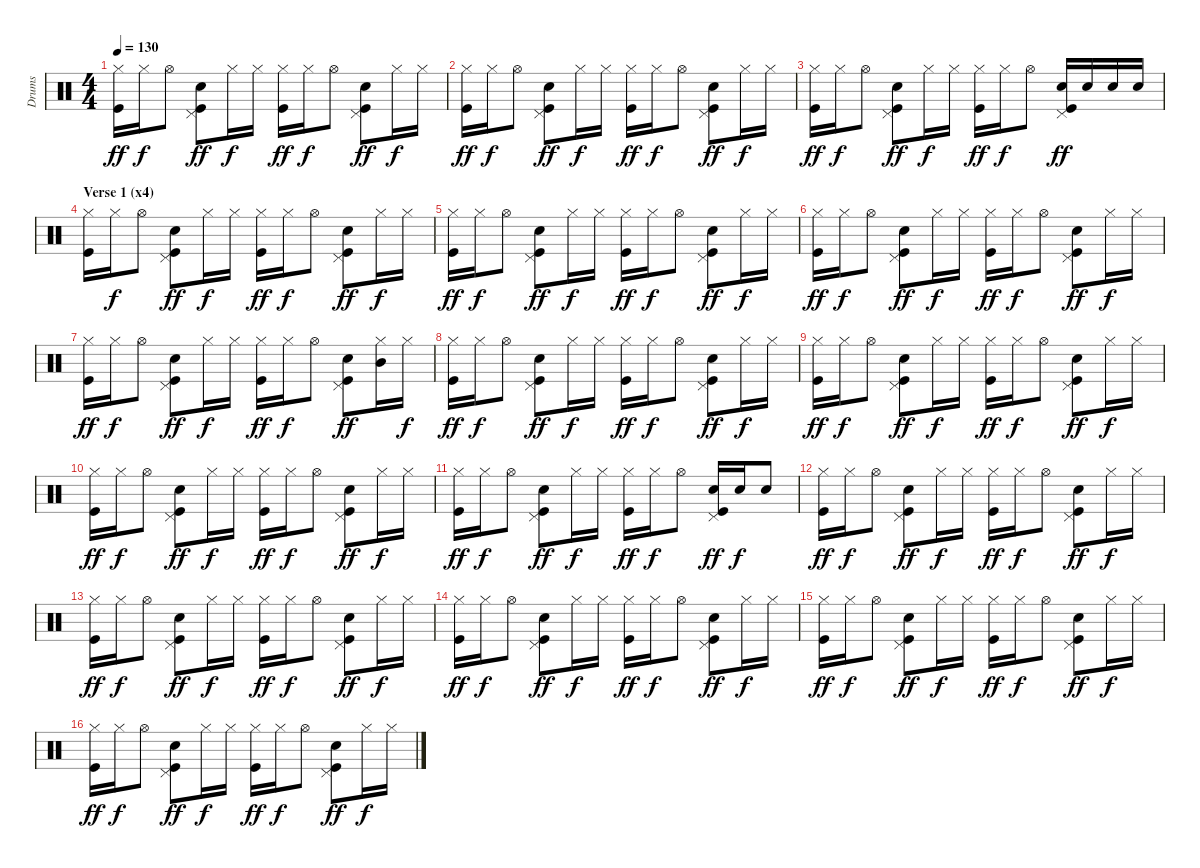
\track ("Drums" "Drums") {instrument percussion}
\staff {score}
\articulation defaults
\ts (4 4)
\tempo 130
\clef neutral
\ks c
("Hi-Hat (closed)" "Kick (hit)").16{dy ff} "Hi-Hat (closed)".16{dy f} "Hi-Hat (open)".8 ("Pedal Hi-Hat (hit)" "Electric Snare (hit)" "Kick (hit)").8{dy ff} "Hi-Hat (closed)".16{dy f} "Hi-Hat (closed)".16 ("Hi-Hat (closed)" "Kick (hit)").16{dy ff} "Hi-Hat (closed)".16{dy f} "Hi-Hat (open)".8 ("Pedal Hi-Hat (hit)" "Electric Snare (hit)" "Kick (hit)").8{dy ff} "Hi-Hat (closed)".16{dy f} "Hi-Hat (closed)".16 |
("Hi-Hat (closed)" "Kick (hit)").16{dy ff} "Hi-Hat (closed)".16{dy f} "Hi-Hat (open)".8 ("Pedal Hi-Hat (hit)" "Electric Snare (hit)" "Kick (hit)").8{dy ff} "Hi-Hat (closed)".16{dy f} "Hi-Hat (closed)".16 ("Hi-Hat (closed)" "Kick (hit)").16{dy ff} "Hi-Hat (closed)".16{dy f} "Hi-Hat (open)".8 ("Pedal Hi-Hat (hit)" "Electric Snare (hit)" "Kick (hit)").8{dy ff} "Hi-Hat (closed)".16{dy f} "Hi-Hat (closed)".16 |
("Hi-Hat (closed)" "Kick (hit)").16{dy ff} "Hi-Hat (closed)".16{dy f} "Hi-Hat (open)".8 ("Pedal Hi-Hat (hit)" "Electric Snare (hit)" "Kick (hit)").8{dy ff} "Hi-Hat (closed)".16{dy f} "Hi-Hat (closed)".16 ("Hi-Hat (closed)" "Kick (hit)").16{dy ff} "Hi-Hat (closed)".16{dy f} "Hi-Hat (open)".8 ("Pedal Hi-Hat (hit)" "Electric Snare (hit)" "Kick (hit)").16{dy ff} "Electric Snare (hit)".16 "Electric Snare (hit)".16 "Electric Snare (hit)".16 |
\section ("" "Verse 1 (x4)")
("Hi-Hat (closed)" "Kick (hit)").16 "Hi-Hat (closed)".16{dy f} "Hi-Hat (open)".8 ("Pedal Hi-Hat (hit)" "Electric Snare (hit)" "Kick (hit)").8{dy ff} "Hi-Hat (closed)".16{dy f} "Hi-Hat (closed)".16 ("Hi-Hat (closed)" "Kick (hit)").16{dy ff} "Hi-Hat (closed)".16{dy f} "Hi-Hat (open)".8 ("Pedal Hi-Hat (hit)" "Electric Snare (hit)" "Kick (hit)").8{dy ff} "Hi-Hat (closed)".16{dy f} "Hi-Hat (closed)".16 |
("Hi-Hat (closed)" "Kick (hit)").16{dy ff} "Hi-Hat (closed)".16{dy f} "Hi-Hat (open)".8 ("Pedal Hi-Hat (hit)" "Electric Snare (hit)" "Kick (hit)").8{dy ff} "Hi-Hat (closed)".16{dy f} "Hi-Hat (closed)".16 ("Hi-Hat (closed)" "Kick (hit)").16{dy ff} "Hi-Hat (closed)".16{dy f} "Hi-Hat (open)".8 ("Pedal Hi-Hat (hit)" "Electric Snare (hit)" "Kick (hit)").8{dy ff} "Hi-Hat (closed)".16{dy f} "Hi-Hat (closed)".16 |
("Hi-Hat (closed)" "Kick (hit)").16{dy ff} "Hi-Hat (closed)".16{dy f} "Hi-Hat (open)".8 ("Pedal Hi-Hat (hit)" "Electric Snare (hit)" "Kick (hit)").8{dy ff} "Hi-Hat (closed)".16{dy f} "Hi-Hat (closed)".16 ("Hi-Hat (closed)" "Kick (hit)").16{dy ff} "Hi-Hat (closed)".16{dy f} "Hi-Hat (open)".8 ("Pedal Hi-Hat (hit)" "Electric Snare (hit)" "Kick (hit)").8{dy ff} "Hi-Hat (closed)".16{dy f} "Hi-Hat (closed)".16 |
("Hi-Hat (closed)" "Kick (hit)").16{dy ff} "Hi-Hat (closed)".16{dy f} "Hi-Hat (open)".8 ("Pedal Hi-Hat (hit)" "Electric Snare (hit)" "Kick (hit)").8{dy ff} "Hi-Hat (closed)".16{dy f} "Hi-Hat (closed)".16 ("Hi-Hat (closed)" "Kick (hit)").16{dy ff} "Hi-Hat (closed)".16{dy f} "Hi-Hat (open)".8 ("Pedal Hi-Hat (hit)" "Electric Snare (hit)" "Kick (hit)").8{dy ff} ("Hi-Hat (closed)" "Mid Tom (hit)").16 "Hi-Hat (closed)".16{dy f} |
("Hi-Hat (closed)" "Kick (hit)").16{dy ff} "Hi-Hat (closed)".16{dy f} "Hi-Hat (open)".8 ("Pedal Hi-Hat (hit)" "Electric Snare (hit)" "Kick (hit)").8{dy ff} "Hi-Hat (closed)".16{dy f} "Hi-Hat (closed)".16 ("Hi-Hat (closed)" "Kick (hit)").16{dy ff} "Hi-Hat (closed)".16{dy f} "Hi-Hat (open)".8 ("Pedal Hi-Hat (hit)" "Electric Snare (hit)" "Kick (hit)").8{dy ff} "Hi-Hat (closed)".16{dy f} "Hi-Hat (closed)".16 |
("Hi-Hat (closed)" "Kick (hit)").16{dy ff} "Hi-Hat (closed)".16{dy f} "Hi-Hat (open)".8 ("Pedal Hi-Hat (hit)" "Electric Snare (hit)" "Kick (hit)").8{dy ff} "Hi-Hat (closed)".16{dy f} "Hi-Hat (closed)".16 ("Hi-Hat (closed)" "Kick (hit)").16{dy ff} "Hi-Hat (closed)".16{dy f} "Hi-Hat (open)".8 ("Pedal Hi-Hat (hit)" "Electric Snare (hit)" "Kick (hit)").8{dy ff} "Hi-Hat (closed)".16{dy f} "Hi-Hat (closed)".16 |
("Hi-Hat (closed)" "Kick (hit)").16{dy ff} "Hi-Hat (closed)".16{dy f} "Hi-Hat (open)".8 ("Pedal Hi-Hat (hit)" "Electric Snare (hit)" "Kick (hit)").8{dy ff} "Hi-Hat (closed)".16{dy f} "Hi-Hat (closed)".16 ("Hi-Hat (closed)" "Kick (hit)").16{dy ff} "Hi-Hat (closed)".16{dy f} "Hi-Hat (open)".8 ("Pedal Hi-Hat (hit)" "Electric Snare (hit)" "Kick (hit)").8{dy ff} "Hi-Hat (closed)".16{dy f} "Hi-Hat (closed)".16 |
("Hi-Hat (closed)" "Kick (hit)").16{dy ff} "Hi-Hat (closed)".16{dy f} "Hi-Hat (open)".8 ("Pedal Hi-Hat (hit)" "Electric Snare (hit)" "Kick (hit)").8{dy ff} "Hi-Hat (closed)".16{dy f} "Hi-Hat (closed)".16 ("Hi-Hat (closed)" "Kick (hit)").16{dy ff} "Hi-Hat (closed)".16{dy f} "Hi-Hat (open)".8 ("Pedal Hi-Hat (hit)" "Electric Snare (hit)" "Kick (hit)").16{dy ff} "Electric Snare (hit)".16{dy f} "Electric Snare (hit)".8 |
("Hi-Hat (closed)" "Kick (hit)").16{dy ff} "Hi-Hat (closed)".16{dy f} "Hi-Hat (open)".8 ("Pedal Hi-Hat (hit)" "Electric Snare (hit)" "Kick (hit)").8{dy ff} "Hi-Hat (closed)".16{dy f} "Hi-Hat (closed)".16 ("Hi-Hat (closed)" "Kick (hit)").16{dy ff} "Hi-Hat (closed)".16{dy f} "Hi-Hat (open)".8 ("Pedal Hi-Hat (hit)" "Electric Snare (hit)" "Kick (hit)").8{dy ff} "Hi-Hat (closed)".16{dy f} "Hi-Hat (closed)".16 |
("Hi-Hat (closed)" "Kick (hit)").16{dy ff} "Hi-Hat (closed)".16{dy f} "Hi-Hat (open)".8 ("Pedal Hi-Hat (hit)" "Electric Snare (hit)" "Kick (hit)").8{dy ff} "Hi-Hat (closed)".16{dy f} "Hi-Hat (closed)".16 ("Hi-Hat (closed)" "Kick (hit)").16{dy ff} "Hi-Hat (closed)".16{dy f} "Hi-Hat (open)".8 ("Pedal Hi-Hat (hit)" "Electric Snare (hit)" "Kick (hit)").8{dy ff} "Hi-Hat (closed)".16{dy f} "Hi-Hat (closed)".16 |
("Hi-Hat (closed)" "Kick (hit)").16{dy ff} "Hi-Hat (closed)".16{dy f} "Hi-Hat (open)".8 ("Pedal Hi-Hat (hit)" "Electric Snare (hit)" "Kick (hit)").8{dy ff} "Hi-Hat (closed)".16{dy f} "Hi-Hat (closed)".16 ("Hi-Hat (closed)" "Kick (hit)").16{dy ff} "Hi-Hat (closed)".16{dy f} "Hi-Hat (open)".8 ("Pedal Hi-Hat (hit)" "Electric Snare (hit)" "Kick (hit)").8{dy ff} "Hi-Hat (closed)".16{dy f} "Hi-Hat (closed)".16 |
("Hi-Hat (closed)" "Kick (hit)").16{dy ff} "Hi-Hat (closed)".16{dy f} "Hi-Hat (open)".8 ("Pedal Hi-Hat (hit)" "Electric Snare (hit)" "Kick (hit)").8{dy ff} "Hi-Hat (closed)".16{dy f} "Hi-Hat (closed)".16 ("Hi-Hat (closed)" "Kick (hit)").16{dy ff} "Hi-Hat (closed)".16{dy f} "Hi-Hat (open)".8 ("Pedal Hi-Hat (hit)" "Electric Snare (hit)" "Kick (hit)").8{dy ff} "Hi-Hat (closed)".16{dy f} "Hi-Hat (closed)".16 |
("Hi-Hat (closed)" "Kick (hit)").16{dy ff} "Hi-Hat (closed)".16{dy f} "Hi-Hat (open)".8 ("Pedal Hi-Hat (hit)" "Electric Snare (hit)" "Kick (hit)").8{dy ff} "Hi-Hat (closed)".16{dy f} "Hi-Hat (closed)".16 ("Hi-Hat (closed)" "Kick (hit)").16{dy ff} "Hi-Hat (closed)".16{dy f} "Hi-Hat (open)".8 ("Pedal Hi-Hat (hit)" "Electric Snare (hit)" "Kick (hit)").8{dy ff} "Hi-Hat (closed)".16{dy f} "Hi-Hat (closed)".16
